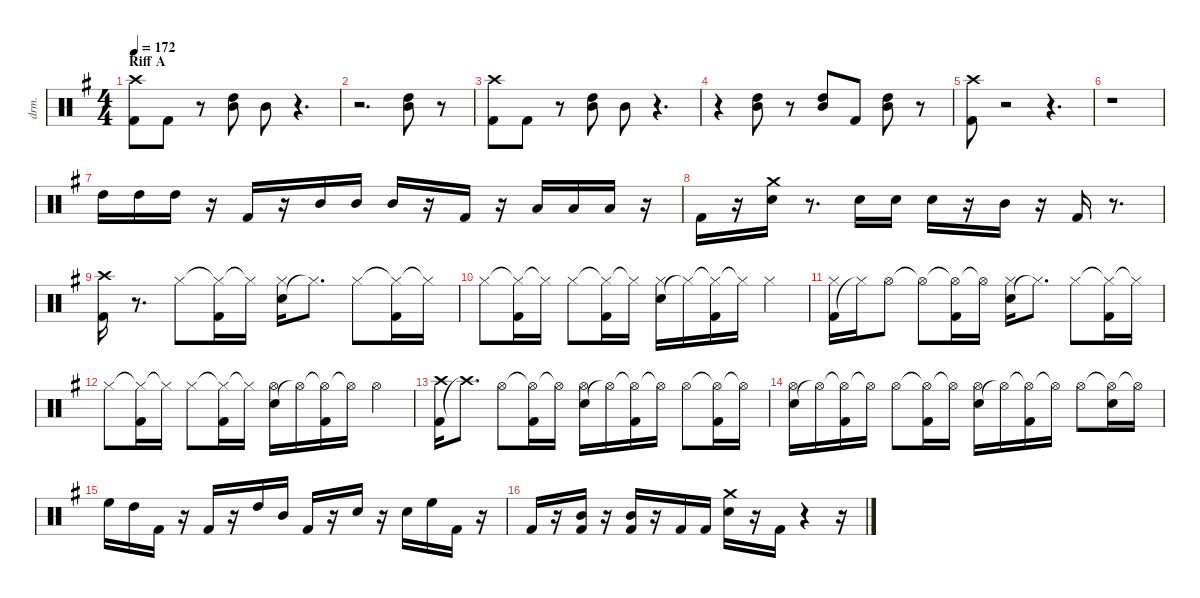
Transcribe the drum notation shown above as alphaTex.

\defaultSystemsLayout 4
\hideDynamics
\bracketExtendMode nobrackets
\otherSystemsTrackNameOrientation horizontal
\track ("Shinya" "drm.") {instrument percussion}
\staff {score}
\articulation defaults
\ts (4 4)
\beaming (8 2 2 2 2)
\section ("" "Riff A")
\tempo 172
\clef neutral
\ks eminor
("Kick (hit) 2"{acc forcenatural} "Crash high (hit)"{acc #}).8{dy fff} "Kick (hit) 2"{acc forcenatural}.8 r.8 ("Mid Tom (hit)"{acc forcenatural} "High Tom (hit)"{acc forcenatural}).8 "Mid Tom (hit)"{acc forcenatural}.8{dy ff} r.4{d} |
r.2{d} ("Mid Tom (hit)"{acc forcenatural} "High Tom (hit)"{acc forcenatural}).8{dy fff} r.8 |
("Kick (hit) 2"{acc forcenatural} "Crash high (hit)"{acc #}).8 "Kick (hit) 2"{acc forcenatural}.8 r.8 ("Mid Tom (hit)"{acc forcenatural} "High Tom (hit)"{acc forcenatural}).8 "Mid Tom (hit)"{acc forcenatural}.8 r.4{d} |
r.4 ("Mid Tom (hit)"{acc forcenatural} "High Tom (hit)"{acc forcenatural}).8 r.8 ("Mid Tom (hit)"{acc forcenatural} "High Tom (hit)"{acc forcenatural}).8 "Kick (hit) 2"{acc forcenatural}.8{dy ff} ("Mid Tom (hit)"{acc forcenatural} "High Tom (hit)"{acc forcenatural}).8{dy fff} r.8 |
("Kick (hit) 2"{acc forcenatural} "Crash high (hit)"{acc #}).8 r.2 r.4{d} |
r.1 |
"High Tom (hit)"{acc forcenatural}.16 "High Tom (hit)"{acc forcenatural}.16 "High Tom (hit)"{acc forcenatural}.16 r.16 "Kick (hit) 2"{acc forcenatural}.16 r.16 "Mid Tom (hit)"{acc forcenatural}.16 "Mid Tom (hit)"{acc forcenatural}.16 "Mid Tom (hit)"{acc forcenatural}.16 r.16 "Kick (hit) 2"{acc forcenatural}.16 r.16 "Low Tom (hit)"{acc forcenatural}.16 "Low Tom (hit)"{acc forcenatural}.16{dy ff} "Low Tom (hit)"{acc forcenatural}.16{dy fff} r.16 |
"Kick (hit) 2"{acc forcenatural}.16 r.16 ("Snare (hit) 2"{acc forcenatural} "Crash medium (hit)"{acc forcenatural}).16 r.8{d} "Snare (hit) 2"{acc forcenatural}.16 "Snare (hit) 2"{acc forcenatural}.16 "Snare (hit) 2"{acc forcenatural}.16 r.16 "Mid Tom (hit)"{acc forcenatural}.16 r.16 "Kick (hit) 2"{acc forcenatural}.16 r.8{d} |
("Kick (hit) 2"{acc forcenatural} "Crash high (hit)"{acc #}).16 r.8{d} "Hi-Hat (closed)"{acc #}.8 ("Hi-Hat (closed)"{t acc #} "Kick (hit) 2"{acc forcenatural}).16 "Hi-Hat (closed)"{t acc #}.16 ("Snare (hit) 2"{acc forcenatural} "Hi-Hat (closed)"{acc #}).16 "Hi-Hat (closed)"{t acc #}.8{d} "Hi-Hat (closed)"{acc #}.8 ("Hi-Hat (closed)"{t acc #} "Kick (hit) 2"{acc forcenatural}).16 "Hi-Hat (closed)"{t acc #}.16 |
"Hi-Hat (closed)"{acc #}.8 ("Hi-Hat (closed)"{t acc #} "Kick (hit) 2"{acc forcenatural}).16 "Hi-Hat (closed)"{t acc #}.16 "Hi-Hat (closed)"{acc #}.8{dy ff} ("Hi-Hat (closed)"{t acc #} "Kick (hit) 2"{acc forcenatural}).16 "Hi-Hat (closed)"{t acc #}.16 ("Snare (hit) 2"{acc forcenatural} "Hi-Hat (closed)"{acc #}).16{dy fff} "Hi-Hat (closed)"{t acc #}.16 ("Hi-Hat (closed)"{t acc #} "Kick (hit) 2"{acc forcenatural}).16 "Hi-Hat (closed)"{t acc #}.16 "Hi-Hat (closed)"{acc #}.4 |
("Kick (hit) 2"{acc forcenatural} "Hi-Hat (closed)"{acc #}).16 "Hi-Hat (closed)"{t acc #}.16 "Hi-Hat (open)"{acc #}.8 "Hi-Hat (open)"{t acc #}.8 ("Hi-Hat (open)"{t acc #} "Kick (hit) 2"{acc forcenatural}).16 "Hi-Hat (open)"{t acc #}.16 ("Snare (hit) 2"{acc forcenatural} "Hi-Hat (closed)"{acc #}).16 "Hi-Hat (closed)"{t acc #}.8{d} "Hi-Hat (closed)"{acc #}.8 ("Hi-Hat (closed)"{t acc #} "Kick (hit) 2"{acc forcenatural}).16 "Hi-Hat (closed)"{t acc #}.16 |
"Hi-Hat (closed)"{acc #}.8 ("Hi-Hat (closed)"{t acc #} "Kick (hit) 2"{acc forcenatural}).16 "Hi-Hat (closed)"{t acc #}.16 "Hi-Hat (closed)"{acc #}.8 ("Hi-Hat (closed)"{t acc #} "Kick (hit) 2"{acc forcenatural}).16 "Hi-Hat (closed)"{t acc #}.16 ("Snare (hit) 2"{acc forcenatural} "Hi-Hat (open)"{acc #}).16 "Hi-Hat (open)"{t acc #}.16 ("Hi-Hat (open)"{t acc #} "Kick (hit) 2"{acc forcenatural}).16 "Hi-Hat (open)"{t acc #}.16 "Hi-Hat (open)"{acc #}.4 |
("Kick (hit) 2"{acc forcenatural} "Crash high (hit)"{acc #}).16 "Crash high (hit)"{t acc #}.8{d} "Hi-Hat (open)"{acc #}.8 ("Hi-Hat (open)"{t acc #} "Kick (hit) 2"{acc forcenatural}).16 "Hi-Hat (open)"{t acc #}.16 ("Snare (hit) 2"{acc forcenatural} "Hi-Hat (open)"{acc #}).16 "Hi-Hat (open)"{t acc #}.16 ("Hi-Hat (open)"{t acc #} "Kick (hit) 2"{acc forcenatural}).16 "Hi-Hat (open)"{t acc #}.16 "Hi-Hat (open)"{acc #}.8 ("Hi-Hat (open)"{t acc #} "Kick (hit) 2"{acc forcenatural}).16 "Hi-Hat (open)"{t acc #}.16 |
("Snare (hit) 2"{acc forcenatural} "Hi-Hat (open)"{acc #}).16 "Hi-Hat (open)"{t acc #}.16 ("Hi-Hat (open)"{t acc #} "Kick (hit) 2"{acc forcenatural}).16 "Hi-Hat (open)"{t acc #}.16 "Hi-Hat (open)"{acc #}.8 ("Hi-Hat (open)"{t acc #} "Kick (hit) 2"{acc forcenatural}).16 "Hi-Hat (open)"{t acc #}.16 ("Snare (hit) 2"{acc forcenatural} "Hi-Hat (open)"{acc #}).16 "Hi-Hat (open)"{t acc #}.16 ("Hi-Hat (open)"{t acc #} "Kick (hit) 2"{acc forcenatural}).16 "Hi-Hat (open)"{t acc #}.16 "Hi-Hat (open)"{acc #}.8 ("Hi-Hat (open)"{t acc #} "Snare (hit) 2"{acc forcenatural}).16 "Hi-Hat (open)"{t acc #}.16 |
"High Floor Tom (hit)"{acc forcenatural}.16 "High Tom (hit)"{acc forcenatural}.16 "Kick (hit) 2"{acc forcenatural}.16 r.16 "Kick (hit) 2"{acc forcenatural}.16 r.16 "High Tom (hit)"{acc forcenatural}.16 "Mid Tom (hit)"{acc forcenatural}.16 "Kick (hit) 2"{acc forcenatural}.16 r.16 "Snare (hit) 2"{acc forcenatural}.16 r.16 "Snare (hit) 2"{acc forcenatural}.16 "High Floor Tom (hit)"{acc forcenatural}.16 "Kick (hit) 2"{acc forcenatural}.16 r.16 |
"Kick (hit) 2"{acc forcenatural}.16 r.16 ("Kick (hit) 2"{acc forcenatural} "Mid Tom (hit)"{acc forcenatural}).16 r.16 ("Kick (hit) 2"{acc forcenatural} "Mid Tom (hit)"{acc forcenatural}).16 r.16 "Kick (hit) 2"{acc forcenatural}.16 "Kick (hit) 2"{acc forcenatural}.16 ("Snare (hit) 2"{acc forcenatural} "Crash medium (hit)"{acc forcenatural}).16 r.16 "Kick (hit) 2"{acc forcenatural}.16 r.4 r.16
